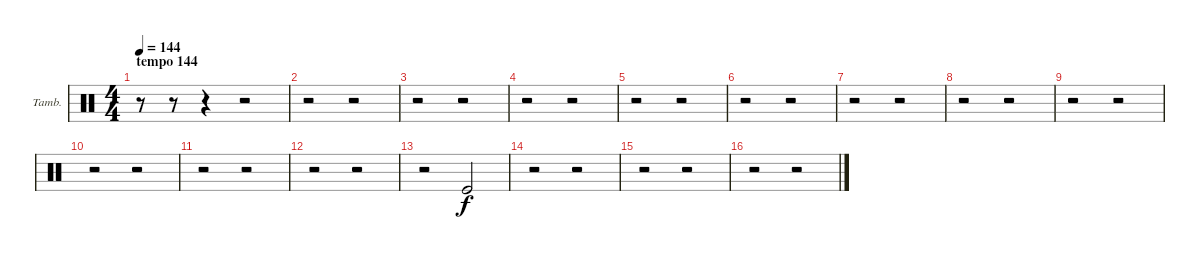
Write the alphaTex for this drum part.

\bracketExtendMode groupsimilarinstruments
\firstSystemTrackNameOrientation horizontal
\otherSystemsTrackNameOrientation horizontal
\track ("Tambourine" "Tamb.") {instrument percussion}
\staff {score}
\articulation defaults
\ts (4 4)
\beaming (8 2 2 2 2)
\section ("" "tempo 144")
\tempo 144
\clef neutral
\ks c
r.8{dy f} r.8 r.4 r.2 |
r.2 r.2 |
r.2 r.2 |
r.2 r.2 |
r.2 r.2 |
r.2 r.2 |
r.2 r.2 |
r.2 r.2 |
r.2 r.2 |
r.2 r.2 |
r.2 r.2 |
r.2 r.2 |
r.2 "Kick (hit)".2 |
r.2 r.2 |
r.2 r.2 |
r.2 r.2
